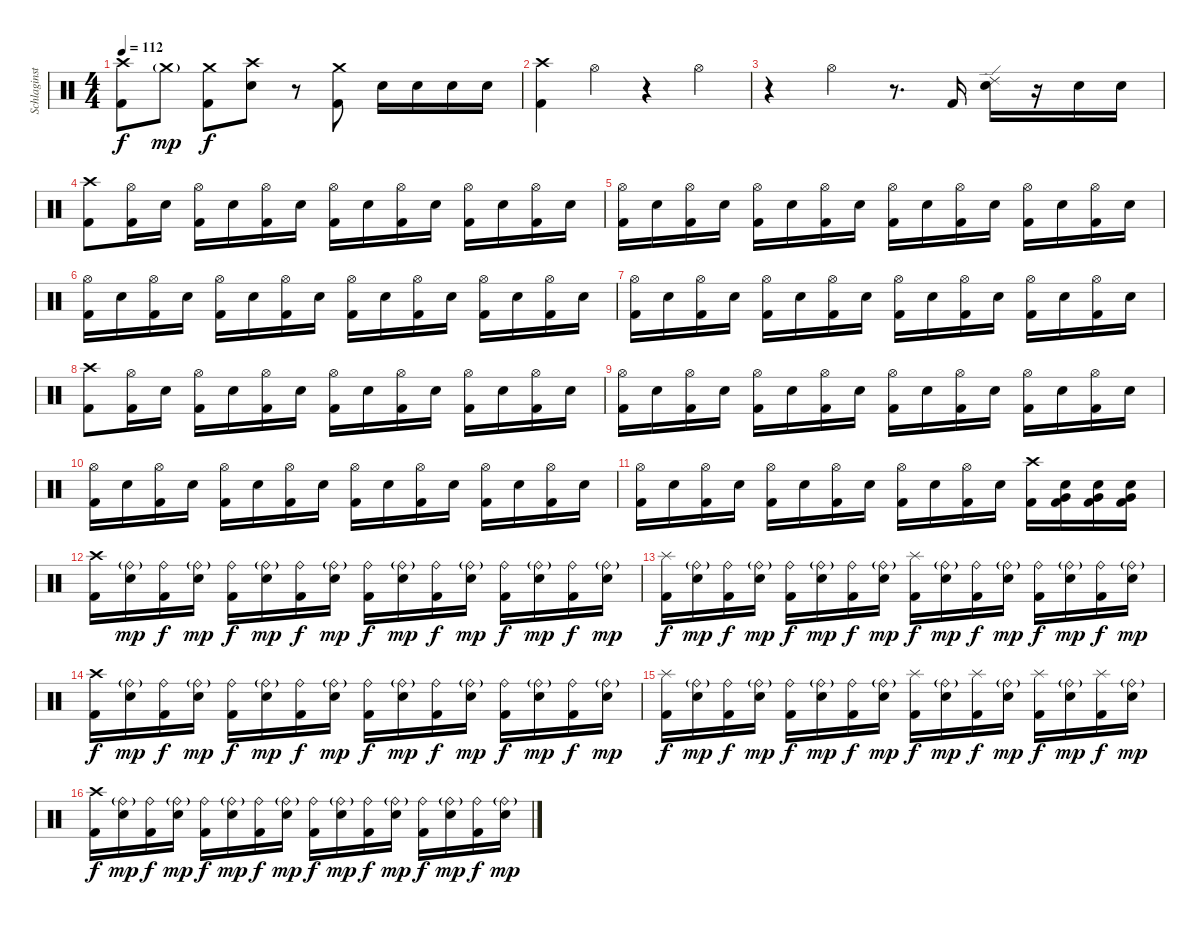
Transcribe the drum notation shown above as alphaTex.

\track ("Schlaginstrumente - Auswahl" "Schlaginst") {instrument percussion}
\staff {score}
\articulation defaults
\ts (4 4)
\tempo 112
\clef neutral
\ks c
("Crash high (hit)" "Kick (hit) 2").8{dy f} "Crash medium (hit)"{g}.8{dy mp} ("Crash medium (hit)" "Kick (hit) 2").8{dy f} ("Crash high (hit)" "Snare (hit) 2").8 r.8 ("Crash medium (hit)" "Kick (hit) 2").8 "Snare (hit) 2".16 "Snare (hit) 2".16 "Snare (hit) 2".16 "Snare (hit) 2".16 |
("Crash high (hit)" "Kick (hit) 2").4 "Hi-Hat (open)".4 r.4 "Hi-Hat (open)".4 |
r.4 "Hi-Hat (open)".4 r.8{d} "Kick (hit) 2".16 ("Ride (edge) 2" "Snare (hit) 2").16 r.16 "Snare (hit) 2".16 "Snare (hit) 2".16 |
("Crash high (hit)" "Kick (hit) 2").8 ("Hi-Hat (open)" "Kick (hit) 2").16 "Snare (hit) 2".16 ("Hi-Hat (open)" "Kick (hit) 2").16 "Snare (hit) 2".16 ("Hi-Hat (open)" "Kick (hit) 2").16 "Snare (hit) 2".16 ("Hi-Hat (open)" "Kick (hit) 2").16 "Snare (hit) 2".16 ("Hi-Hat (open)" "Kick (hit) 2").16 "Snare (hit) 2".16 ("Hi-Hat (open)" "Kick (hit) 2").16 "Snare (hit) 2".16 ("Hi-Hat (open)" "Kick (hit) 2").16 "Snare (hit) 2".16 |
("Hi-Hat (open)" "Kick (hit) 2").16 "Snare (hit) 2".16 ("Hi-Hat (open)" "Kick (hit) 2").16 "Snare (hit) 2".16 ("Hi-Hat (open)" "Kick (hit) 2").16 "Snare (hit) 2".16 ("Hi-Hat (open)" "Kick (hit) 2").16 "Snare (hit) 2".16 ("Hi-Hat (open)" "Kick (hit) 2").16 "Snare (hit) 2".16 ("Hi-Hat (open)" "Kick (hit) 2").16 "Snare (hit) 2".16 ("Hi-Hat (open)" "Kick (hit) 2").16 "Snare (hit) 2".16 ("Hi-Hat (open)" "Kick (hit) 2").16 "Snare (hit) 2".16 |
("Hi-Hat (open)" "Kick (hit) 2").16 "Snare (hit) 2".16 ("Hi-Hat (open)" "Kick (hit) 2").16 "Snare (hit) 2".16 ("Hi-Hat (open)" "Kick (hit) 2").16 "Snare (hit) 2".16 ("Hi-Hat (open)" "Kick (hit) 2").16 "Snare (hit) 2".16 ("Hi-Hat (open)" "Kick (hit) 2").16 "Snare (hit) 2".16 ("Hi-Hat (open)" "Kick (hit) 2").16 "Snare (hit) 2".16 ("Hi-Hat (open)" "Kick (hit) 2").16 "Snare (hit) 2".16 ("Hi-Hat (open)" "Kick (hit) 2").16 "Snare (hit) 2".16 |
("Hi-Hat (open)" "Kick (hit) 2").16 "Snare (hit) 2".16 ("Hi-Hat (open)" "Kick (hit) 2").16 "Snare (hit) 2".16 ("Hi-Hat (open)" "Kick (hit) 2").16 "Snare (hit) 2".16 ("Hi-Hat (open)" "Kick (hit) 2").16 "Snare (hit) 2".16 ("Hi-Hat (open)" "Kick (hit) 2").16 "Snare (hit) 2".16 ("Hi-Hat (open)" "Kick (hit) 2").16 "Snare (hit) 2".16 ("Hi-Hat (open)" "Kick (hit) 2").16 "Snare (hit) 2".16 ("Hi-Hat (open)" "Kick (hit) 2").16 "Snare (hit) 2".16 |
("Crash high (hit)" "Kick (hit) 2").8 ("Hi-Hat (open)" "Kick (hit) 2").16 "Snare (hit) 2".16 ("Hi-Hat (open)" "Kick (hit) 2").16 "Snare (hit) 2".16 ("Hi-Hat (open)" "Kick (hit) 2").16 "Snare (hit) 2".16 ("Hi-Hat (open)" "Kick (hit) 2").16 "Snare (hit) 2".16 ("Hi-Hat (open)" "Kick (hit) 2").16 "Snare (hit) 2".16 ("Hi-Hat (open)" "Kick (hit) 2").16 "Snare (hit) 2".16 ("Hi-Hat (open)" "Kick (hit) 2").16 "Snare (hit) 2".16 |
("Hi-Hat (open)" "Kick (hit) 2").16 "Snare (hit) 2".16 ("Hi-Hat (open)" "Kick (hit) 2").16 "Snare (hit) 2".16 ("Hi-Hat (open)" "Kick (hit) 2").16 "Snare (hit) 2".16 ("Hi-Hat (open)" "Kick (hit) 2").16 "Snare (hit) 2".16 ("Hi-Hat (open)" "Kick (hit) 2").16 "Snare (hit) 2".16 ("Hi-Hat (open)" "Kick (hit) 2").16 "Snare (hit) 2".16 ("Hi-Hat (open)" "Kick (hit) 2").16 "Snare (hit) 2".16 ("Hi-Hat (open)" "Kick (hit) 2").16 "Snare (hit) 2".16 |
("Hi-Hat (open)" "Kick (hit) 2").16 "Snare (hit) 2".16 ("Hi-Hat (open)" "Kick (hit) 2").16 "Snare (hit) 2".16 ("Hi-Hat (open)" "Kick (hit) 2").16 "Snare (hit) 2".16 ("Hi-Hat (open)" "Kick (hit) 2").16 "Snare (hit) 2".16 ("Hi-Hat (open)" "Kick (hit) 2").16 "Snare (hit) 2".16 ("Hi-Hat (open)" "Kick (hit) 2").16 "Snare (hit) 2".16 ("Hi-Hat (open)" "Kick (hit) 2").16 "Snare (hit) 2".16 ("Hi-Hat (open)" "Kick (hit) 2").16 "Snare (hit) 2".16 |
("Hi-Hat (open)" "Kick (hit) 2").16 "Snare (hit) 2".16 ("Hi-Hat (open)" "Kick (hit) 2").16 "Snare (hit) 2".16 ("Hi-Hat (open)" "Kick (hit) 2").16 "Snare (hit) 2".16 ("Hi-Hat (open)" "Kick (hit) 2").16 "Snare (hit) 2".16 ("Hi-Hat (open)" "Kick (hit) 2").16 "Snare (hit) 2".16 ("Hi-Hat (open)" "Kick (hit) 2").16 "Snare (hit) 2".16 ("Crash high (hit)" "Kick (hit) 2").16 ("Snare (hit) 2" "Very Low Tom (hit)" "Kick (hit) 2").16 ("Snare (hit) 2" "Very Low Tom (hit)" "Kick (hit) 2").16 ("Snare (hit) 2" "Very Low Tom (hit)" "Kick (hit) 2").16 |
("Crash high (hit)" "Kick (hit) 2").16 ("Ride (bell)"{g} "Snare (hit) 2").16{dy mp} ("Ride (bell)" "Kick (hit) 2").16{dy f} ("Ride (bell)"{g} "Snare (hit) 2").16{dy mp} ("Ride (bell)" "Kick (hit) 2").16{dy f} ("Ride (bell)"{g} "Snare (hit) 2").16{dy mp} ("Ride (bell)" "Kick (hit) 2").16{dy f} ("Ride (bell)"{g} "Snare (hit) 2").16{dy mp} ("Ride (bell)" "Kick (hit) 2").16{dy f} ("Ride (bell)"{g} "Snare (hit) 2").16{dy mp} ("Ride (bell)" "Kick (hit) 2").16{dy f} ("Ride (bell)"{g} "Snare (hit) 2").16{dy mp} ("Ride (bell)" "Kick (hit) 2").16{dy f} ("Ride (bell)"{g} "Snare (hit) 2").16{dy mp} ("Ride (bell)" "Kick (hit) 2").16{dy f} ("Ride (bell)"{g} "Snare (hit) 2").16{dy mp} |
("Splash (hit)" "Kick (hit) 2").16{dy f} ("Ride (bell)"{g} "Snare (hit) 2").16{dy mp} ("Ride (bell)" "Kick (hit) 2").16{dy f} ("Ride (bell)"{g} "Snare (hit) 2").16{dy mp} ("Ride (bell)" "Kick (hit) 2").16{dy f} ("Ride (bell)"{g} "Snare (hit) 2").16{dy mp} ("Ride (bell)" "Kick (hit) 2").16{dy f} ("Ride (bell)"{g} "Snare (hit) 2").16{dy mp} ("Splash (hit)" "Kick (hit) 2").16{dy f} ("Ride (bell)"{g} "Snare (hit) 2").16{dy mp} ("Ride (bell)" "Kick (hit) 2").16{dy f} ("Ride (bell)"{g} "Snare (hit) 2").16{dy mp} ("Ride (bell)" "Kick (hit) 2").16{dy f} ("Ride (bell)"{g} "Snare (hit) 2").16{dy mp} ("Ride (bell)" "Kick (hit) 2").16{dy f} ("Ride (bell)"{g} "Snare (hit) 2").16{dy mp} |
("Crash high (hit)" "Kick (hit) 2").16{dy f} ("Ride (bell)"{g} "Snare (hit) 2").16{dy mp} ("Ride (bell)" "Kick (hit) 2").16{dy f} ("Ride (bell)"{g} "Snare (hit) 2").16{dy mp} ("Ride (bell)" "Kick (hit) 2").16{dy f} ("Ride (bell)"{g} "Snare (hit) 2").16{dy mp} ("Ride (bell)" "Kick (hit) 2").16{dy f} ("Ride (bell)"{g} "Snare (hit) 2").16{dy mp} ("Ride (bell)" "Kick (hit) 2").16{dy f} ("Ride (bell)"{g} "Snare (hit) 2").16{dy mp} ("Ride (bell)" "Kick (hit) 2").16{dy f} ("Ride (bell)"{g} "Snare (hit) 2").16{dy mp} ("Ride (bell)" "Kick (hit) 2").16{dy f} ("Ride (bell)"{g} "Snare (hit) 2").16{dy mp} ("Ride (bell)" "Kick (hit) 2").16{dy f} ("Ride (bell)"{g} "Snare (hit) 2").16{dy mp} |
("Splash (hit)" "Kick (hit) 2").16{dy f} ("Ride (bell)"{g} "Snare (hit) 2").16{dy mp} ("Ride (bell)" "Kick (hit) 2").16{dy f} ("Ride (bell)"{g} "Snare (hit) 2").16{dy mp} ("Ride (bell)" "Kick (hit) 2").16{dy f} ("Ride (bell)"{g} "Snare (hit) 2").16{dy mp} ("Ride (bell)" "Kick (hit) 2").16{dy f} ("Ride (bell)"{g} "Snare (hit) 2").16{dy mp} ("Splash (hit)" "Kick (hit) 2").16{dy f} ("Ride (bell)"{g} "Snare (hit) 2").16{dy mp} ("Splash (hit)" "Kick (hit) 2").16{dy f} ("Ride (bell)"{g} "Snare (hit) 2").16{dy mp} ("Splash (hit)" "Kick (hit) 2").16{dy f} ("Ride (bell)"{g} "Snare (hit) 2").16{dy mp} ("Splash (hit)" "Kick (hit) 2").16{dy f} ("Ride (bell)"{g} "Snare (hit) 2").16{dy mp} |
("Crash high (hit)" "Kick (hit) 2").16{dy f} ("Ride (bell)"{g} "Snare (hit) 2").16{dy mp} ("Ride (bell)" "Kick (hit) 2").16{dy f} ("Ride (bell)"{g} "Snare (hit) 2").16{dy mp} ("Ride (bell)" "Kick (hit) 2").16{dy f} ("Ride (bell)"{g} "Snare (hit) 2").16{dy mp} ("Ride (bell)" "Kick (hit) 2").16{dy f} ("Ride (bell)"{g} "Snare (hit) 2").16{dy mp} ("Ride (bell)" "Kick (hit) 2").16{dy f} ("Ride (bell)"{g} "Snare (hit) 2").16{dy mp} ("Ride (bell)" "Kick (hit) 2").16{dy f} ("Ride (bell)"{g} "Snare (hit) 2").16{dy mp} ("Ride (bell)" "Kick (hit) 2").16{dy f} ("Ride (bell)"{g} "Snare (hit) 2").16{dy mp} ("Ride (bell)" "Kick (hit) 2").16{dy f} ("Ride (bell)"{g} "Snare (hit) 2").16{dy mp}
